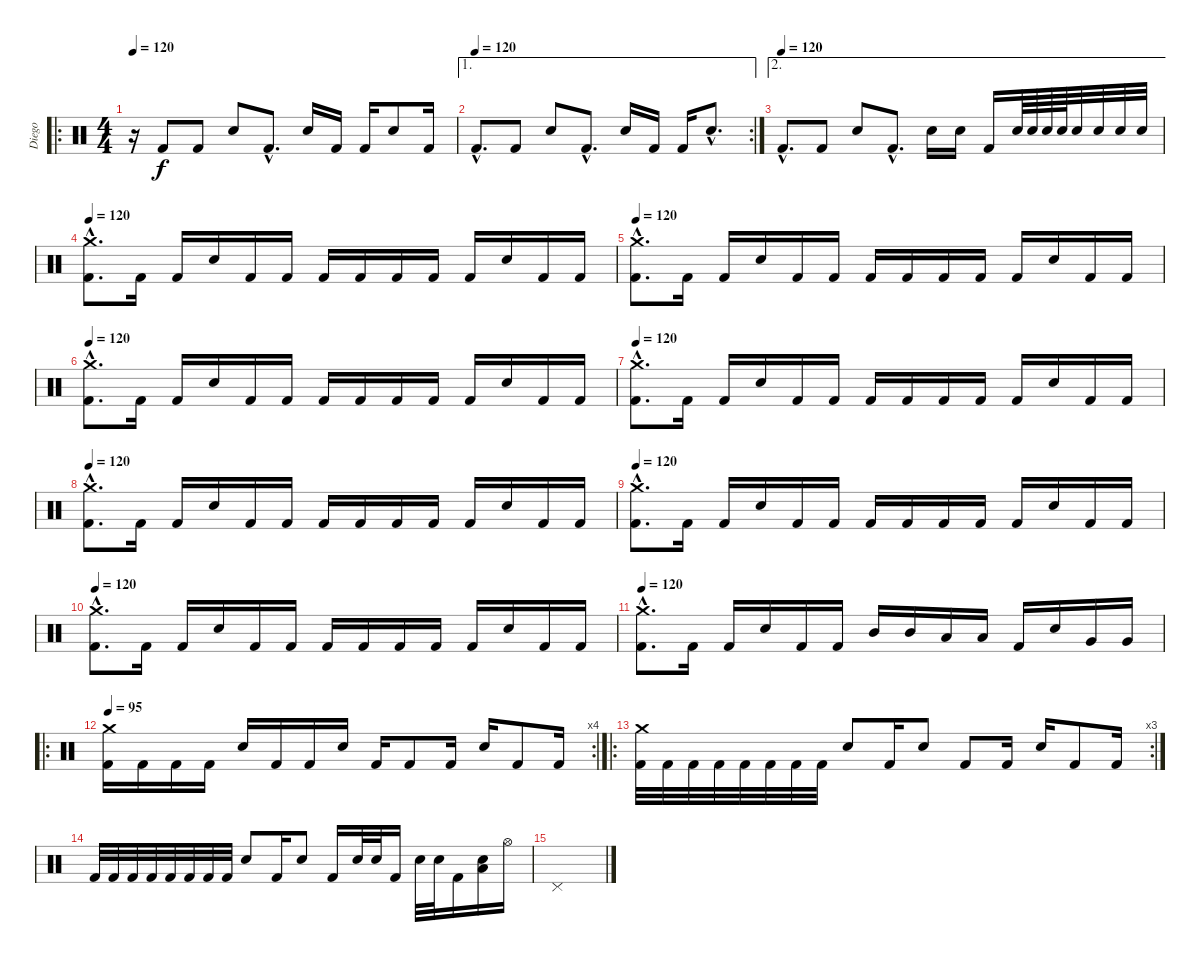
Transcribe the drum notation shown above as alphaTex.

\track ("Diego" "Diego") {instrument percussion}
\staff {score}
\articulation defaults
\ro
\ts (4 4)
\tempo 120
\clef neutral
\ks c
r.16{dy f} "Kick (hit) 2".8 "Kick (hit) 2".8 "Snare (hit) 2".8 "Kick (hit) 2"{hac}.8{d} "Snare (hit) 2".16 "Kick (hit) 2".16 "Kick (hit) 2".16 "Snare (hit) 2".8 "Kick (hit) 2".16 |
\ae 1
\rc 2
\tempo (120)
"Kick (hit) 2"{hac}.8{d} "Kick (hit) 2".8 "Snare (hit) 2".8 "Kick (hit) 2"{hac}.8{d} "Snare (hit) 2".16 "Kick (hit) 2".16 "Kick (hit) 2".16 "Snare (hit) 2"{hac}.8{d} |
\ae 2
\tempo (120)
"Kick (hit) 2"{hac}.8{d} "Kick (hit) 2".8 "Snare (hit) 2".8 "Kick (hit) 2"{hac}.8{d} "Snare (hit) 2".16 "Snare (hit) 2".16 "Kick (hit) 2".16 "Snare (hit) 2".64 "Snare (hit) 2".64 "Snare (hit) 2".64 "Snare (hit) 2".64 "Snare (hit) 2".32 "Snare (hit) 2".32 "Snare (hit) 2".32 "Snare (hit) 2".32 |
\tempo 120
("Crash medium (hit)"{hac} "Kick (hit) 2"{hac}).8{d} "Kick (hit) 2".16 "Kick (hit) 2".16 "Snare (hit) 2".16 "Kick (hit) 2".16 "Kick (hit) 2".16 "Kick (hit) 2".16 "Kick (hit) 2".16 "Kick (hit) 2".16 "Kick (hit) 2".16 "Kick (hit) 2".16 "Snare (hit) 2".16 "Kick (hit) 2".16 "Kick (hit) 2".16 |
\tempo 120
("Crash medium (hit)"{hac} "Kick (hit) 2"{hac}).8{d} "Kick (hit) 2".16 "Kick (hit) 2".16 "Snare (hit) 2".16 "Kick (hit) 2".16 "Kick (hit) 2".16 "Kick (hit) 2".16 "Kick (hit) 2".16 "Kick (hit) 2".16 "Kick (hit) 2".16 "Kick (hit) 2".16 "Snare (hit) 2".16 "Kick (hit) 2".16 "Kick (hit) 2".16 |
\tempo 120
("Crash medium (hit)"{hac} "Kick (hit) 2"{hac}).8{d} "Kick (hit) 2".16 "Kick (hit) 2".16 "Snare (hit) 2".16 "Kick (hit) 2".16 "Kick (hit) 2".16 "Kick (hit) 2".16 "Kick (hit) 2".16 "Kick (hit) 2".16 "Kick (hit) 2".16 "Kick (hit) 2".16 "Snare (hit) 2".16 "Kick (hit) 2".16 "Kick (hit) 2".16 |
\tempo 120
("Crash medium (hit)"{hac} "Kick (hit) 2"{hac}).8{d} "Kick (hit) 2".16 "Kick (hit) 2".16 "Snare (hit) 2".16 "Kick (hit) 2".16 "Kick (hit) 2".16 "Kick (hit) 2".16 "Kick (hit) 2".16 "Kick (hit) 2".16 "Kick (hit) 2".16 "Kick (hit) 2".16 "Snare (hit) 2".16 "Kick (hit) 2".16 "Kick (hit) 2".16 |
\tempo 120
("Crash medium (hit)"{hac} "Kick (hit) 2"{hac}).8{d} "Kick (hit) 2".16 "Kick (hit) 2".16 "Snare (hit) 2".16 "Kick (hit) 2".16 "Kick (hit) 2".16 "Kick (hit) 2".16 "Kick (hit) 2".16 "Kick (hit) 2".16 "Kick (hit) 2".16 "Kick (hit) 2".16 "Snare (hit) 2".16 "Kick (hit) 2".16 "Kick (hit) 2".16 |
\tempo 120
("Crash medium (hit)"{hac} "Kick (hit) 2"{hac}).8{d} "Kick (hit) 2".16 "Kick (hit) 2".16 "Snare (hit) 2".16 "Kick (hit) 2".16 "Kick (hit) 2".16 "Kick (hit) 2".16 "Kick (hit) 2".16 "Kick (hit) 2".16 "Kick (hit) 2".16 "Kick (hit) 2".16 "Snare (hit) 2".16 "Kick (hit) 2".16 "Kick (hit) 2".16 |
\tempo 120
("Crash medium (hit)"{hac} "Kick (hit) 2"{hac}).8{d} "Kick (hit) 2".16 "Kick (hit) 2".16 "Snare (hit) 2".16 "Kick (hit) 2".16 "Kick (hit) 2".16 "Kick (hit) 2".16 "Kick (hit) 2".16 "Kick (hit) 2".16 "Kick (hit) 2".16 "Kick (hit) 2".16 "Snare (hit) 2".16 "Kick (hit) 2".16 "Kick (hit) 2".16 |
\tempo 120
("Crash medium (hit)"{hac} "Kick (hit) 2"{hac}).8{d} "Kick (hit) 2".16 "Kick (hit) 2".16 "Snare (hit) 2".16 "Kick (hit) 2".16 "Kick (hit) 2".16 "Mid Tom (hit)".16 "Mid Tom (hit)".16 "Low Tom (hit)".16 "Low Tom (hit)".16 "Kick (hit) 2".16 "Snare (hit) 2".16 "Very Low Tom (hit)".16 "Very Low Tom (hit)".16 |
\ro
\rc 4
\tempo 95
("Crash medium (hit)" "Kick (hit) 2").16 "Kick (hit) 2".16 "Kick (hit) 2".16 "Kick (hit) 2".16 "Snare (hit) 2".16 "Kick (hit) 2".16 "Kick (hit) 2".16 "Snare (hit) 2".16 "Kick (hit) 2".16 "Kick (hit) 2".8 "Kick (hit) 2".16 "Snare (hit) 2".16 "Kick (hit) 2".8 "Kick (hit) 2".16 |
\ro
\rc 3
("Crash medium (hit)" "Kick (hit) 2").32 "Kick (hit) 2".32 "Kick (hit) 2".32 "Kick (hit) 2".32 "Kick (hit) 2".32 "Kick (hit) 2".32 "Kick (hit) 2".32 "Kick (hit) 2".32 "Snare (hit) 2".8 "Kick (hit) 2".16 "Snare (hit) 2".8 "Kick (hit) 2".8 "Kick (hit) 2".16 "Snare (hit) 2".16 "Kick (hit) 2".8 "Kick (hit) 2".16 |
"Kick (hit) 2".32 "Kick (hit) 2".32 "Kick (hit) 2".32 "Kick (hit) 2".32 "Kick (hit) 2".32 "Kick (hit) 2".32 "Kick (hit) 2".32 "Kick (hit) 2".32 "Snare (hit) 2".8 "Kick (hit) 2".16 "Snare (hit) 2".8 "Kick (hit) 2".16 "Snare (hit) 2".32 "Snare (hit) 2".32 "Kick (hit) 2".16 "Snare (hit) 2".32 "Snare (hit) 2".32 "Kick (hit) 2".16 ("Snare (hit) 2" "Low Floor Tom (hit)").16 "Hi-Hat (open)".16 |
"Pedal Hi-Hat (hit)".1
